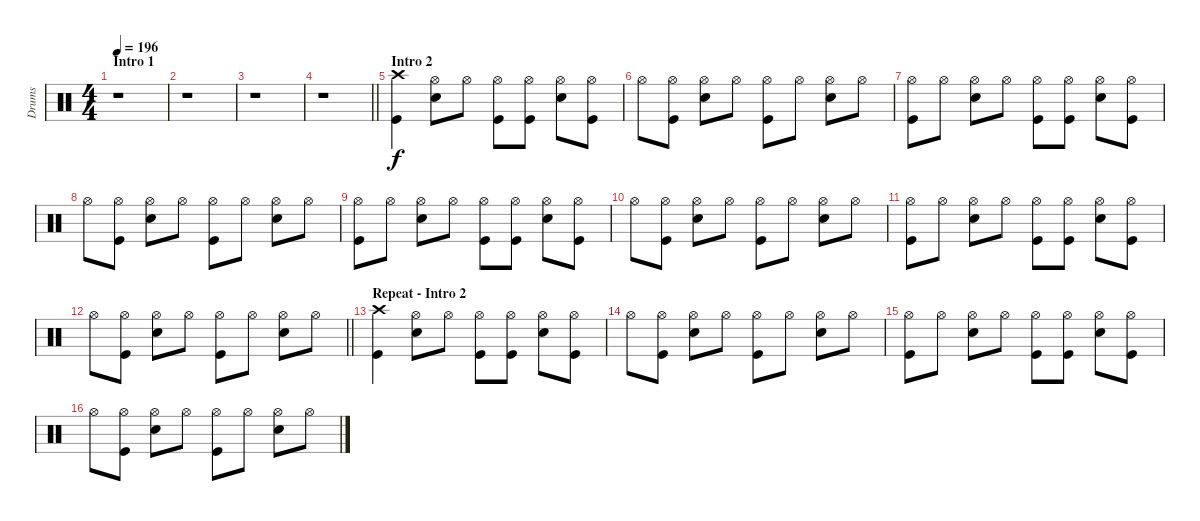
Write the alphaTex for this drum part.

\track ("Drums" "Drums") {instrument percussion}
\staff {score}
\articulation defaults
\ts (4 4)
\section ("" "Intro 1")
\tempo 196
\clef neutral
\ks c
r.1{dy f} |
r.1 |
r.1 |
\barLineRight lightlight
r.1 |
\section ("" "Intro 2")
("Crash high (hit)" "Kick (hit)").4 ("Hi-Hat (open)" "Electric Snare (hit)").8 "Hi-Hat (open)".8 ("Hi-Hat (open)" "Kick (hit)").8 ("Hi-Hat (open)" "Kick (hit)").8 ("Hi-Hat (open)" "Electric Snare (hit)").8 ("Hi-Hat (open)" "Kick (hit)").8 |
"Hi-Hat (open)".8 ("Hi-Hat (open)" "Kick (hit)").8 ("Hi-Hat (open)" "Electric Snare (hit)").8 "Hi-Hat (open)".8 ("Hi-Hat (open)" "Kick (hit)").8 "Hi-Hat (open)".8 ("Hi-Hat (open)" "Electric Snare (hit)").8 "Hi-Hat (open)".8 |
("Hi-Hat (open)" "Kick (hit)").8 "Hi-Hat (open)".8 ("Hi-Hat (open)" "Electric Snare (hit)").8 "Hi-Hat (open)".8 ("Hi-Hat (open)" "Kick (hit)").8 ("Hi-Hat (open)" "Kick (hit)").8 ("Hi-Hat (open)" "Electric Snare (hit)").8 ("Hi-Hat (open)" "Kick (hit)").8 |
"Hi-Hat (open)".8 ("Hi-Hat (open)" "Kick (hit)").8 ("Hi-Hat (open)" "Electric Snare (hit)").8 "Hi-Hat (open)".8 ("Hi-Hat (open)" "Kick (hit)").8 "Hi-Hat (open)".8 ("Hi-Hat (open)" "Electric Snare (hit)").8 "Hi-Hat (open)".8 |
("Hi-Hat (open)" "Kick (hit)").8 "Hi-Hat (open)".8 ("Hi-Hat (open)" "Electric Snare (hit)").8 "Hi-Hat (open)".8 ("Hi-Hat (open)" "Kick (hit)").8 ("Hi-Hat (open)" "Kick (hit)").8 ("Hi-Hat (open)" "Electric Snare (hit)").8 ("Hi-Hat (open)" "Kick (hit)").8 |
"Hi-Hat (open)".8 ("Hi-Hat (open)" "Kick (hit)").8 ("Hi-Hat (open)" "Electric Snare (hit)").8 "Hi-Hat (open)".8 ("Hi-Hat (open)" "Kick (hit)").8 "Hi-Hat (open)".8 ("Hi-Hat (open)" "Electric Snare (hit)").8 "Hi-Hat (open)".8 |
("Hi-Hat (open)" "Kick (hit)").8 "Hi-Hat (open)".8 ("Hi-Hat (open)" "Electric Snare (hit)").8 "Hi-Hat (open)".8 ("Hi-Hat (open)" "Kick (hit)").8 ("Hi-Hat (open)" "Kick (hit)").8 ("Hi-Hat (open)" "Electric Snare (hit)").8 ("Hi-Hat (open)" "Kick (hit)").8 |
\barLineRight lightlight "Hi-Hat (open)".8
("Hi-Hat (open)" "Kick (hit)").8 ("Hi-Hat (open)" "Electric Snare (hit)").8 "Hi-Hat (open)".8 ("Hi-Hat (open)" "Kick (hit)").8 "Hi-Hat (open)".8 ("Hi-Hat (open)" "Electric Snare (hit)").8 "Hi-Hat (open)".8 |
\section ("" "Repeat - Intro 2")
("Crash high (hit)" "Kick (hit)").4 ("Hi-Hat (open)" "Electric Snare (hit)").8 "Hi-Hat (open)".8 ("Hi-Hat (open)" "Kick (hit)").8 ("Hi-Hat (open)" "Kick (hit)").8 ("Hi-Hat (open)" "Electric Snare (hit)").8 ("Hi-Hat (open)" "Kick (hit)").8 |
"Hi-Hat (open)".8 ("Hi-Hat (open)" "Kick (hit)").8 ("Hi-Hat (open)" "Electric Snare (hit)").8 "Hi-Hat (open)".8 ("Hi-Hat (open)" "Kick (hit)").8 "Hi-Hat (open)".8 ("Hi-Hat (open)" "Electric Snare (hit)").8 "Hi-Hat (open)".8 |
("Hi-Hat (open)" "Kick (hit)").8 "Hi-Hat (open)".8 ("Hi-Hat (open)" "Electric Snare (hit)").8 "Hi-Hat (open)".8 ("Hi-Hat (open)" "Kick (hit)").8 ("Hi-Hat (open)" "Kick (hit)").8 ("Hi-Hat (open)" "Electric Snare (hit)").8 ("Hi-Hat (open)" "Kick (hit)").8 |
"Hi-Hat (open)".8 ("Hi-Hat (open)" "Kick (hit)").8 ("Hi-Hat (open)" "Electric Snare (hit)").8 "Hi-Hat (open)".8 ("Hi-Hat (open)" "Kick (hit)").8 "Hi-Hat (open)".8 ("Hi-Hat (open)" "Electric Snare (hit)").8 "Hi-Hat (open)".8
